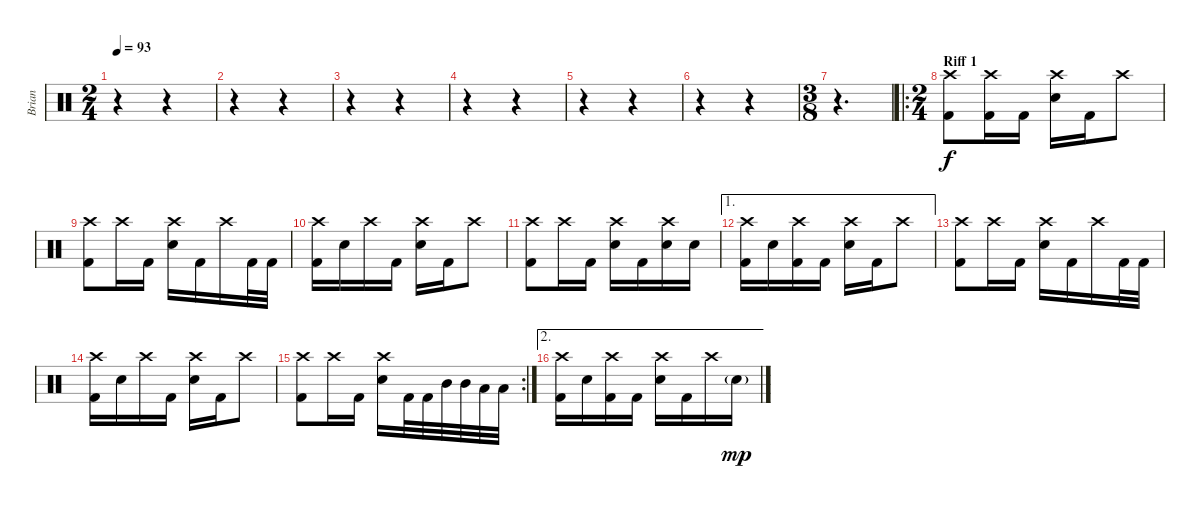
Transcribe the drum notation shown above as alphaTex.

\track ("Brian" "Brian") {instrument percussion}
\staff {score}
\articulation defaults
\ts (2 4)
\tempo 93
\clef neutral
\ks c
r.4{dy f} r.4 |
r.4 r.4 |
r.4 r.4 |
r.4 r.4 |
r.4 r.4 |
r.4 r.4 |
\ts (3 8)
r.4{d} |
\ro
\ts (2 4)
\section ("" "Riff 1")
("Crash high (hit)" "Kick (hit) 2").8 ("Crash high (hit)" "Kick (hit) 2").16 "Kick (hit) 2".16 ("Crash high (hit)" "Electric Snare (hit)").16 "Kick (hit) 2".16 "Crash high (hit)".8 |
("Crash high (hit)" "Kick (hit) 2").8 "Crash high (hit)".16 "Kick (hit) 2".16 ("Crash high (hit)" "Electric Snare (hit)").16 "Kick (hit) 2".16 "Crash high (hit)".16 "Kick (hit) 2".32 "Kick (hit) 2".32 |
("Crash high (hit)" "Kick (hit) 2").16 "Electric Snare (hit)".16 "Crash high (hit)".16 "Kick (hit) 2".16 ("Crash high (hit)" "Electric Snare (hit)").16 "Kick (hit) 2".16 "Crash high (hit)".8 |
("Crash high (hit)" "Kick (hit) 2").8 "Crash high (hit)".16 "Kick (hit) 2".16 ("Crash high (hit)" "Electric Snare (hit)").16 "Kick (hit) 2".16 ("Crash high (hit)" "Electric Snare (hit)").16 "Electric Snare (hit)".16 |
\ae 1
("Crash high (hit)" "Kick (hit) 2").16 "Electric Snare (hit)".16 ("Crash high (hit)" "Kick (hit) 2").16 "Kick (hit) 2".16 ("Crash high (hit)" "Electric Snare (hit)").16 "Kick (hit) 2".16 "Crash high (hit)".8 |
("Crash high (hit)" "Kick (hit) 2").8 "Crash high (hit)".16 "Kick (hit) 2".16 ("Crash high (hit)" "Electric Snare (hit)").16 "Kick (hit) 2".16 "Crash high (hit)".16 "Kick (hit) 2".32 "Kick (hit) 2".32 |
("Crash high (hit)" "Kick (hit) 2").16 "Electric Snare (hit)".16 "Crash high (hit)".16 "Kick (hit) 2".16 ("Crash high (hit)" "Electric Snare (hit)").16 "Kick (hit) 2".16 "Crash high (hit)".8 |
\rc 2
("Crash high (hit)" "Kick (hit) 2").8 "Crash high (hit)".16 "Kick (hit) 2".16 ("Crash high (hit)" "Electric Snare (hit)").16 "Kick (hit) 2".32 "Kick (hit) 2".32 "Mid Tom (hit)".32 "Mid Tom (hit)".32 "Low Tom (hit)".32 "Low Tom (hit)".32 |
\ae 2
("Crash high (hit)" "Kick (hit) 2").16 "Electric Snare (hit)".16 ("Crash high (hit)" "Kick (hit) 2").16 "Kick (hit) 2".16 ("Crash high (hit)" "Electric Snare (hit)").16 "Kick (hit) 2".16 "Crash high (hit)".16 "Electric Snare (hit)"{g}.16{dy mp}
